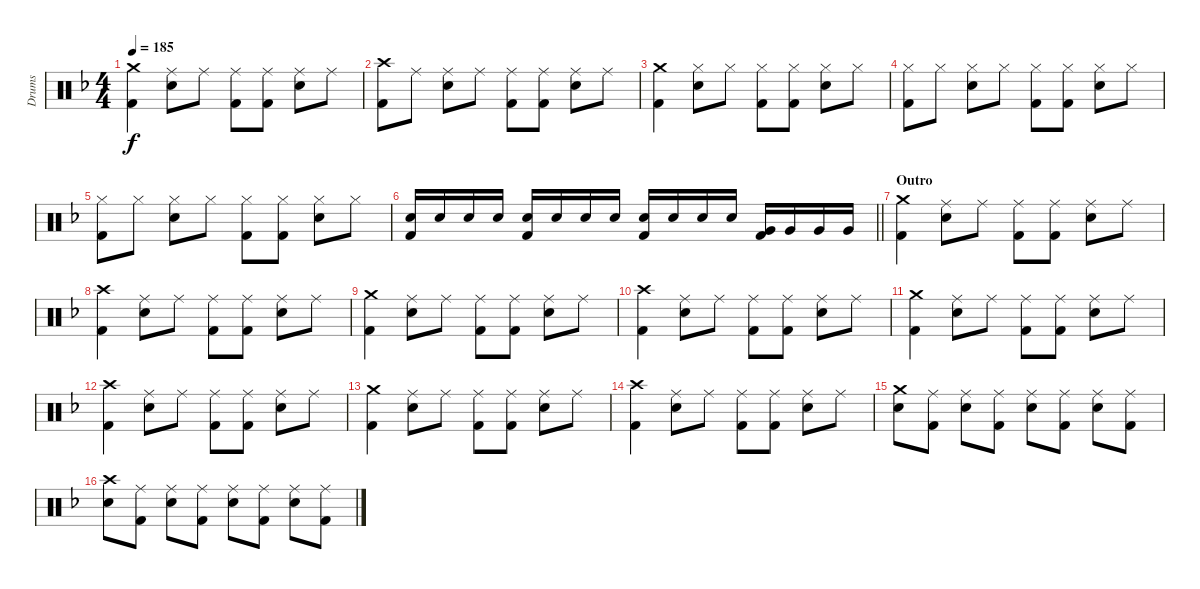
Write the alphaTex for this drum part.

\track ("Drums" "Drums") {instrument percussion}
\staff {score}
\articulation defaults
\ts (4 4)
\tempo 185
\clef neutral
\ks f
("Kick (hit) 2" "Crash medium (hit)").4{dy f} ("Snare (hit) 2" "Ride (middle)").8 "Ride (middle)".8 ("Kick (hit) 2" "Ride (middle)").8 ("Kick (hit) 2" "Ride (middle)").8 ("Snare (hit) 2" "Ride (middle)").8 "Ride (middle)".8 |
("Kick (hit) 2" "Crash high (hit)").8 "Ride (middle)".8 ("Snare (hit) 2" "Ride (middle)").8 "Ride (middle)".8 ("Kick (hit) 2" "Ride (middle)").8 ("Kick (hit) 2" "Ride (middle)").8 ("Snare (hit) 2" "Ride (middle)").8 "Ride (middle)".8 |
("Crash medium (hit)" "Kick (hit) 2").4 ("Hi-Hat (closed)" "Snare (hit) 2").8 "Hi-Hat (closed)".8 ("Hi-Hat (closed)" "Kick (hit) 2").8 ("Hi-Hat (closed)" "Kick (hit) 2").8 ("Hi-Hat (closed)" "Snare (hit) 2").8 "Hi-Hat (closed)".8 |
("Hi-Hat (closed)" "Kick (hit) 2").8 "Hi-Hat (closed)".8 ("Hi-Hat (closed)" "Snare (hit) 2").8 "Hi-Hat (closed)".8 ("Hi-Hat (closed)" "Kick (hit) 2").8 ("Hi-Hat (closed)" "Kick (hit) 2").8 ("Hi-Hat (closed)" "Snare (hit) 2").8 "Hi-Hat (closed)".8 |
("Hi-Hat (closed)" "Kick (hit) 2").8 "Hi-Hat (closed)".8 ("Hi-Hat (closed)" "Snare (hit) 2").8 "Hi-Hat (closed)".8 ("Hi-Hat (closed)" "Kick (hit) 2").8 ("Hi-Hat (closed)" "Kick (hit) 2").8 ("Hi-Hat (closed)" "Snare (hit) 2").8 "Hi-Hat (closed)".8 |
\barLineRight lightlight
("Snare (hit) 2" "Kick (hit) 2").16 "Snare (hit) 2".16 "Snare (hit) 2".16 "Snare (hit) 2".16 ("Snare (hit) 2" "Kick (hit) 2").16 "Snare (hit) 2".16 "Snare (hit) 2".16 "Snare (hit) 2".16 ("Snare (hit) 2" "Kick (hit) 2").16 "Snare (hit) 2".16 "Snare (hit) 2".16 "Snare (hit) 2".16 ("Very Low Tom (hit)" "Kick (hit) 2").16 "Very Low Tom (hit)".16 "Very Low Tom (hit)".16 "Very Low Tom (hit)".16 |
\section ("" "Outro")
("Kick (hit) 2" "Crash medium (hit)").4 ("Snare (hit) 2" "Ride (middle)").8 "Ride (middle)".8 ("Kick (hit) 2" "Ride (middle)").8 ("Kick (hit) 2" "Ride (middle)").8 ("Snare (hit) 2" "Ride (middle)").8 "Ride (middle)".8 |
("Kick (hit) 2" "Crash high (hit)").4 ("Snare (hit) 2" "Ride (middle)").8 "Ride (middle)".8 ("Kick (hit) 2" "Ride (middle)").8 ("Kick (hit) 2" "Ride (middle)").8 ("Snare (hit) 2" "Ride (middle)").8 "Ride (middle)".8 |
("Kick (hit) 2" "Crash medium (hit)").4 ("Snare (hit) 2" "Ride (middle)").8 "Ride (middle)".8 ("Kick (hit) 2" "Ride (middle)").8 ("Kick (hit) 2" "Ride (middle)").8 ("Snare (hit) 2" "Ride (middle)").8 "Ride (middle)".8 |
("Kick (hit) 2" "Crash high (hit)").4 ("Snare (hit) 2" "Ride (middle)").8 "Ride (middle)".8 ("Kick (hit) 2" "Ride (middle)").8 ("Kick (hit) 2" "Ride (middle)").8 ("Snare (hit) 2" "Ride (middle)").8 "Ride (middle)".8 |
("Kick (hit) 2" "Crash medium (hit)").4 ("Snare (hit) 2" "Ride (middle)").8 "Ride (middle)".8 ("Kick (hit) 2" "Ride (middle)").8 ("Kick (hit) 2" "Ride (middle)").8 ("Snare (hit) 2" "Ride (middle)").8 "Ride (middle)".8 |
("Kick (hit) 2" "Crash high (hit)").4 ("Snare (hit) 2" "Ride (middle)").8 "Ride (middle)".8 ("Kick (hit) 2" "Ride (middle)").8 ("Kick (hit) 2" "Ride (middle)").8 ("Snare (hit) 2" "Ride (middle)").8 "Ride (middle)".8 |
("Kick (hit) 2" "Crash medium (hit)").4 ("Snare (hit) 2" "Ride (middle)").8 "Ride (middle)".8 ("Kick (hit) 2" "Ride (middle)").8 ("Kick (hit) 2" "Ride (middle)").8 ("Snare (hit) 2" "Ride (middle)").8 "Ride (middle)".8 |
("Kick (hit) 2" "Crash high (hit)").4 ("Snare (hit) 2" "Ride (middle)").8 "Ride (middle)".8 ("Kick (hit) 2" "Ride (middle)").8 ("Kick (hit) 2" "Ride (middle)").8 ("Snare (hit) 2" "Ride (middle)").8 "Ride (middle)".8 |
("Crash medium (hit)" "Snare (hit) 2").8 ("Ride (middle)" "Kick (hit) 2").8 ("Ride (middle)" "Snare (hit) 2").8 ("Ride (middle)" "Kick (hit) 2").8 ("Ride (middle)" "Snare (hit) 2").8 ("Ride (middle)" "Kick (hit) 2").8 ("Ride (middle)" "Snare (hit) 2").8 ("Ride (middle)" "Kick (hit) 2").8 |
("Crash high (hit)" "Snare (hit) 2").8 ("Ride (middle)" "Kick (hit) 2").8 ("Ride (middle)" "Snare (hit) 2").8 ("Ride (middle)" "Kick (hit) 2").8 ("Ride (middle)" "Snare (hit) 2").8 ("Ride (middle)" "Kick (hit) 2").8 ("Ride (middle)" "Snare (hit) 2").8 ("Ride (middle)" "Kick (hit) 2").8
